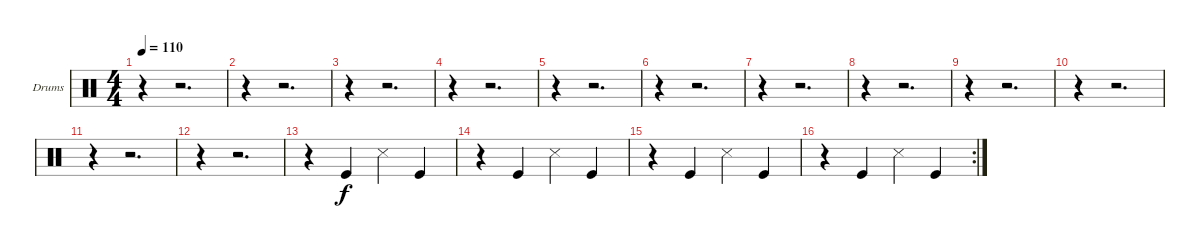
\bracketExtendMode groupsimilarinstruments
\firstSystemTrackNameOrientation horizontal
\otherSystemsTrackNameOrientation horizontal
\track ("Drumkit" "Drums") {instrument percussion}
\staff {score}
\articulation defaults
\ts (4 4)
\tempo 110
\clef neutral
\ks c
r.4{dy f} r.2{d} |
r.4 r.2{d} |
r.4 r.2{d} |
r.4 r.2{d} |
r.4 r.2{d} |
r.4 r.2{d} |
r.4 r.2{d} |
r.4 r.2{d} |
r.4 r.2{d} |
r.4 r.2{d} |
r.4 r.2{d} |
r.4 r.2{d} |
r.4 "Kick (hit)".4 "Snare (side stick) 3".4 "Kick (hit)".4 |
r.4 "Kick (hit)".4 "Snare (side stick) 3".4 "Kick (hit)".4 |
r.4 "Kick (hit)".4 "Snare (side stick) 3".4 "Kick (hit)".4 |
\rc 2
r.4 "Kick (hit)".4 "Snare (side stick) 3".4 "Kick (hit)".4
